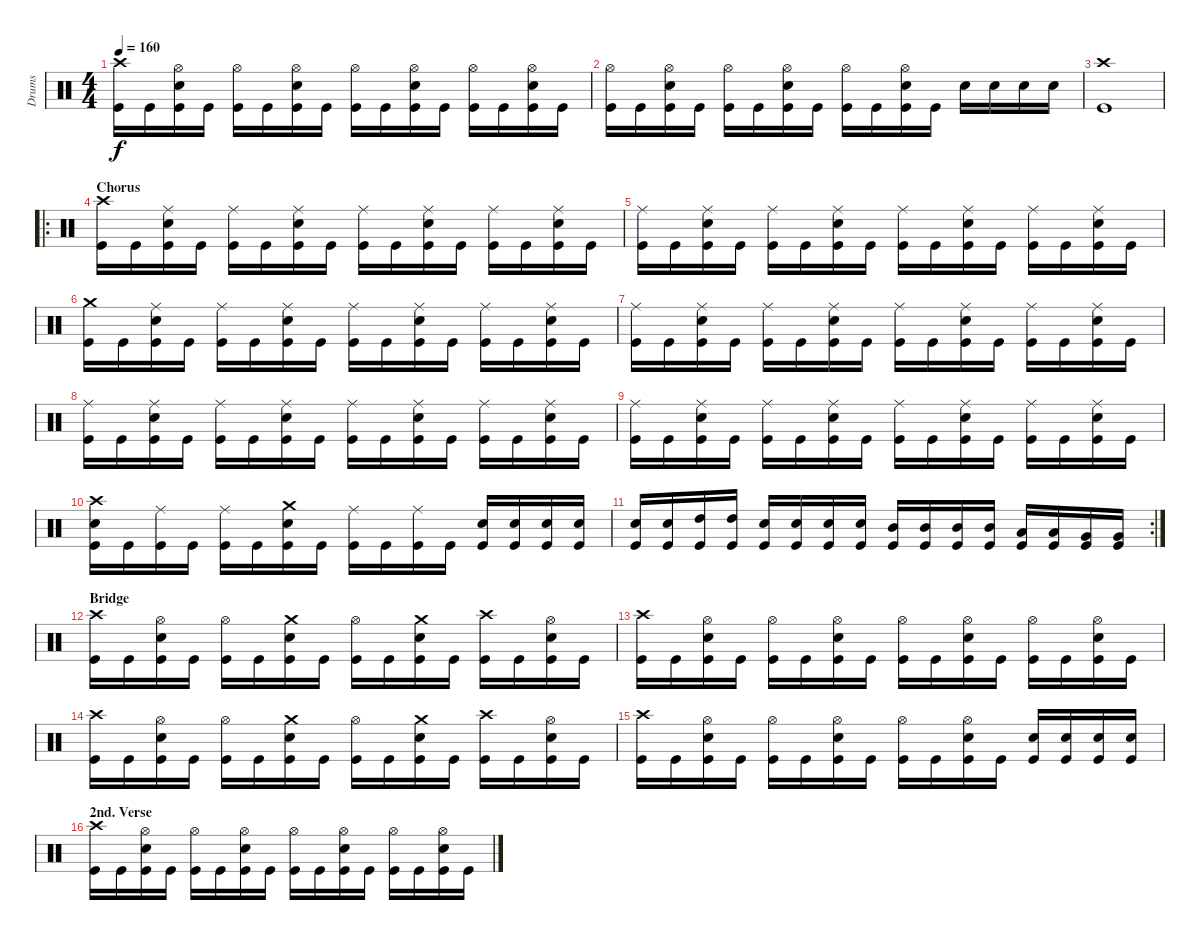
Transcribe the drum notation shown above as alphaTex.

\track ("Drums" "Drums") {instrument percussion}
\staff {score}
\articulation defaults
\ts (4 4)
\tempo 160
\clef neutral
\ks c
("Crash high (hit)" "Kick (hit)").16{dy f} "Kick (hit)".16 ("Hi-Hat (open)" "Electric Snare (hit)" "Kick (hit)").16 "Kick (hit)".16 ("Hi-Hat (open)" "Kick (hit)").16 "Kick (hit)".16 ("Hi-Hat (open)" "Electric Snare (hit)" "Kick (hit)").16 "Kick (hit)".16 ("Hi-Hat (open)" "Kick (hit)").16 "Kick (hit)".16 ("Hi-Hat (open)" "Electric Snare (hit)" "Kick (hit)").16 "Kick (hit)".16 ("Hi-Hat (open)" "Kick (hit)").16 "Kick (hit)".16 ("Hi-Hat (open)" "Electric Snare (hit)" "Kick (hit)").16 "Kick (hit)".16 |
("Hi-Hat (open)" "Kick (hit)").16 "Kick (hit)".16 ("Hi-Hat (open)" "Electric Snare (hit)" "Kick (hit)").16 "Kick (hit)".16 ("Hi-Hat (open)" "Kick (hit)").16 "Kick (hit)".16 ("Hi-Hat (open)" "Electric Snare (hit)" "Kick (hit)").16 "Kick (hit)".16 ("Hi-Hat (open)" "Kick (hit)").16 "Kick (hit)".16 ("Hi-Hat (open)" "Electric Snare (hit)" "Kick (hit)").16 "Kick (hit)".16 "Electric Snare (hit)".16 "Electric Snare (hit)".16 "Electric Snare (hit)".16 "Electric Snare (hit)".16 |
("Crash high (hit)" "Kick (hit)").1 |
\ro
\section ("" "Chorus")
("Crash high (hit)" "Kick (hit)").16 "Kick (hit)".16 ("Ride (middle)" "Electric Snare (hit)" "Kick (hit)").16 "Kick (hit)".16 ("Ride (middle)" "Kick (hit)").16 "Kick (hit)".16 ("Ride (middle)" "Electric Snare (hit)" "Kick (hit)").16 "Kick (hit)".16 ("Ride (middle)" "Kick (hit)").16 "Kick (hit)".16 ("Ride (middle)" "Electric Snare (hit)" "Kick (hit)").16 "Kick (hit)".16 ("Ride (middle)" "Kick (hit)").16 "Kick (hit)".16 ("Ride (middle)" "Electric Snare (hit)" "Kick (hit)").16 "Kick (hit)".16 |
("Ride (middle)" "Kick (hit)").16 "Kick (hit)".16 ("Ride (middle)" "Electric Snare (hit)" "Kick (hit)").16 "Kick (hit)".16 ("Ride (middle)" "Kick (hit)").16 "Kick (hit)".16 ("Ride (middle)" "Electric Snare (hit)" "Kick (hit)").16 "Kick (hit)".16 ("Ride (middle)" "Kick (hit)").16 "Kick (hit)".16 ("Ride (middle)" "Electric Snare (hit)" "Kick (hit)").16 "Kick (hit)".16 ("Ride (middle)" "Kick (hit)").16 "Kick (hit)".16 ("Ride (middle)" "Electric Snare (hit)" "Kick (hit)").16 "Kick (hit)".16 |
("Crash medium (hit)" "Kick (hit)").16 "Kick (hit)".16 ("Ride (middle)" "Electric Snare (hit)" "Kick (hit)").16 "Kick (hit)".16 ("Ride (middle)" "Kick (hit)").16 "Kick (hit)".16 ("Ride (middle)" "Electric Snare (hit)" "Kick (hit)").16 "Kick (hit)".16 ("Ride (middle)" "Kick (hit)").16 "Kick (hit)".16 ("Ride (middle)" "Electric Snare (hit)" "Kick (hit)").16 "Kick (hit)".16 ("Ride (middle)" "Kick (hit)").16 "Kick (hit)".16 ("Ride (middle)" "Electric Snare (hit)" "Kick (hit)").16 "Kick (hit)".16 |
("Ride (middle)" "Kick (hit)").16 "Kick (hit)".16 ("Ride (middle)" "Electric Snare (hit)" "Kick (hit)").16 "Kick (hit)".16 ("Ride (middle)" "Kick (hit)").16 "Kick (hit)".16 ("Ride (middle)" "Electric Snare (hit)" "Kick (hit)").16 "Kick (hit)".16 ("Ride (middle)" "Kick (hit)").16 "Kick (hit)".16 ("Ride (middle)" "Electric Snare (hit)" "Kick (hit)").16 "Kick (hit)".16 ("Ride (middle)" "Kick (hit)").16 "Kick (hit)".16 ("Ride (middle)" "Electric Snare (hit)" "Kick (hit)").16 "Kick (hit)".16 |
("Ride (middle)" "Kick (hit)").16 "Kick (hit)".16 ("Ride (middle)" "Electric Snare (hit)" "Kick (hit)").16 "Kick (hit)".16 ("Ride (middle)" "Kick (hit)").16 "Kick (hit)".16 ("Ride (middle)" "Electric Snare (hit)" "Kick (hit)").16 "Kick (hit)".16 ("Ride (middle)" "Kick (hit)").16 "Kick (hit)".16 ("Ride (middle)" "Electric Snare (hit)" "Kick (hit)").16 "Kick (hit)".16 ("Ride (middle)" "Kick (hit)").16 "Kick (hit)".16 ("Ride (middle)" "Electric Snare (hit)" "Kick (hit)").16 "Kick (hit)".16 |
("Ride (middle)" "Kick (hit)").16 "Kick (hit)".16 ("Ride (middle)" "Electric Snare (hit)" "Kick (hit)").16 "Kick (hit)".16 ("Ride (middle)" "Kick (hit)").16 "Kick (hit)".16 ("Ride (middle)" "Electric Snare (hit)" "Kick (hit)").16 "Kick (hit)".16 ("Ride (middle)" "Kick (hit)").16 "Kick (hit)".16 ("Ride (middle)" "Electric Snare (hit)" "Kick (hit)").16 "Kick (hit)".16 ("Ride (middle)" "Kick (hit)").16 "Kick (hit)".16 ("Ride (middle)" "Electric Snare (hit)" "Kick (hit)").16 "Kick (hit)".16 |
("Crash high (hit)" "Electric Snare (hit)" "Kick (hit)").16 "Kick (hit)".16 ("Ride (middle)" "Kick (hit)").16 "Kick (hit)".16 ("Ride (middle)" "Kick (hit)").16 "Kick (hit)".16 ("Crash medium (hit)" "Electric Snare (hit)" "Kick (hit)").16 "Kick (hit)".16 ("Ride (middle)" "Kick (hit)").16 "Kick (hit)".16 ("Ride (middle)" "Kick (hit)").16 "Kick (hit)".16 ("Electric Snare (hit)" "Kick (hit)").16 ("Electric Snare (hit)" "Kick (hit)").16 ("Electric Snare (hit)" "Kick (hit)").16 ("Electric Snare (hit)" "Kick (hit)").16 |
\rc 2
("Electric Snare (hit)" "Kick (hit)").16 ("Electric Snare (hit)" "Kick (hit)").16 ("High Tom (hit)" "Kick (hit)").16 ("High Tom (hit)" "Kick (hit)").16 ("Electric Snare (hit)" "Kick (hit)").16 ("Electric Snare (hit)" "Kick (hit)").16 ("Electric Snare (hit)" "Kick (hit)").16 ("Electric Snare (hit)" "Kick (hit)").16 ("Mid Tom (hit)" "Kick (hit)").16 ("Mid Tom (hit)" "Kick (hit)").16 ("Mid Tom (hit)" "Kick (hit)").16 ("Mid Tom (hit)" "Kick (hit)").16 ("Low Tom (hit)" "Kick (hit)").16 ("Low Tom (hit)" "Kick (hit)").16 ("Very Low Tom (hit)" "Kick (hit)").16 ("Very Low Tom (hit)" "Kick (hit)").16 |
\section ("" "Bridge")
("Crash high (hit)" "Kick (hit)").16 "Kick (hit)".16 ("Hi-Hat (open)" "Electric Snare (hit)" "Kick (hit)").16 "Kick (hit)".16 ("Hi-Hat (open)" "Kick (hit)").16 "Kick (hit)".16 ("Crash medium (hit)" "Electric Snare (hit)" "Kick (hit)").16 "Kick (hit)".16 ("Hi-Hat (open)" "Kick (hit)").16 "Kick (hit)".16 ("Crash medium (hit)" "Electric Snare (hit)" "Kick (hit)").16 "Kick (hit)".16 ("Crash high (hit)" "Kick (hit)").16 "Kick (hit)".16 ("Hi-Hat (open)" "Electric Snare (hit)" "Kick (hit)").16 "Kick (hit)".16 |
("Crash high (hit)" "Kick (hit)").16 "Kick (hit)".16 ("Hi-Hat (open)" "Electric Snare (hit)" "Kick (hit)").16 "Kick (hit)".16 ("Hi-Hat (open)" "Kick (hit)").16 "Kick (hit)".16 ("Hi-Hat (open)" "Electric Snare (hit)" "Kick (hit)").16 "Kick (hit)".16 ("Hi-Hat (open)" "Kick (hit)").16 "Kick (hit)".16 ("Hi-Hat (open)" "Electric Snare (hit)" "Kick (hit)").16 "Kick (hit)".16 ("Hi-Hat (open)" "Kick (hit)").16 "Kick (hit)".16 ("Hi-Hat (open)" "Electric Snare (hit)" "Kick (hit)").16 "Kick (hit)".16 |
("Crash high (hit)" "Kick (hit)").16 "Kick (hit)".16 ("Hi-Hat (open)" "Electric Snare (hit)" "Kick (hit)").16 "Kick (hit)".16 ("Hi-Hat (open)" "Kick (hit)").16 "Kick (hit)".16 ("Crash medium (hit)" "Electric Snare (hit)" "Kick (hit)").16 "Kick (hit)".16 ("Hi-Hat (open)" "Kick (hit)").16 "Kick (hit)".16 ("Crash medium (hit)" "Electric Snare (hit)" "Kick (hit)").16 "Kick (hit)".16 ("Crash high (hit)" "Kick (hit)").16 "Kick (hit)".16 ("Hi-Hat (open)" "Electric Snare (hit)" "Kick (hit)").16 "Kick (hit)".16 |
("Crash high (hit)" "Kick (hit)").16 "Kick (hit)".16 ("Hi-Hat (open)" "Electric Snare (hit)" "Kick (hit)").16 "Kick (hit)".16 ("Hi-Hat (open)" "Kick (hit)").16 "Kick (hit)".16 ("Hi-Hat (open)" "Electric Snare (hit)" "Kick (hit)").16 "Kick (hit)".16 ("Hi-Hat (open)" "Kick (hit)").16 "Kick (hit)".16 ("Hi-Hat (open)" "Electric Snare (hit)" "Kick (hit)").16 "Kick (hit)".16 ("Electric Snare (hit)" "Kick (hit)").16 ("Electric Snare (hit)" "Kick (hit)").16 ("Electric Snare (hit)" "Kick (hit)").16 ("Electric Snare (hit)" "Kick (hit)").16 |
\section ("" "2nd. Verse")
("Crash high (hit)" "Kick (hit)").16 "Kick (hit)".16 ("Hi-Hat (open)" "Electric Snare (hit)" "Kick (hit)").16 "Kick (hit)".16 ("Hi-Hat (open)" "Kick (hit)").16 "Kick (hit)".16 ("Hi-Hat (open)" "Electric Snare (hit)" "Kick (hit)").16 "Kick (hit)".16 ("Hi-Hat (open)" "Kick (hit)").16 "Kick (hit)".16 ("Hi-Hat (open)" "Electric Snare (hit)" "Kick (hit)").16 "Kick (hit)".16 ("Hi-Hat (open)" "Kick (hit)").16 "Kick (hit)".16 ("Hi-Hat (open)" "Electric Snare (hit)" "Kick (hit)").16 "Kick (hit)".16
